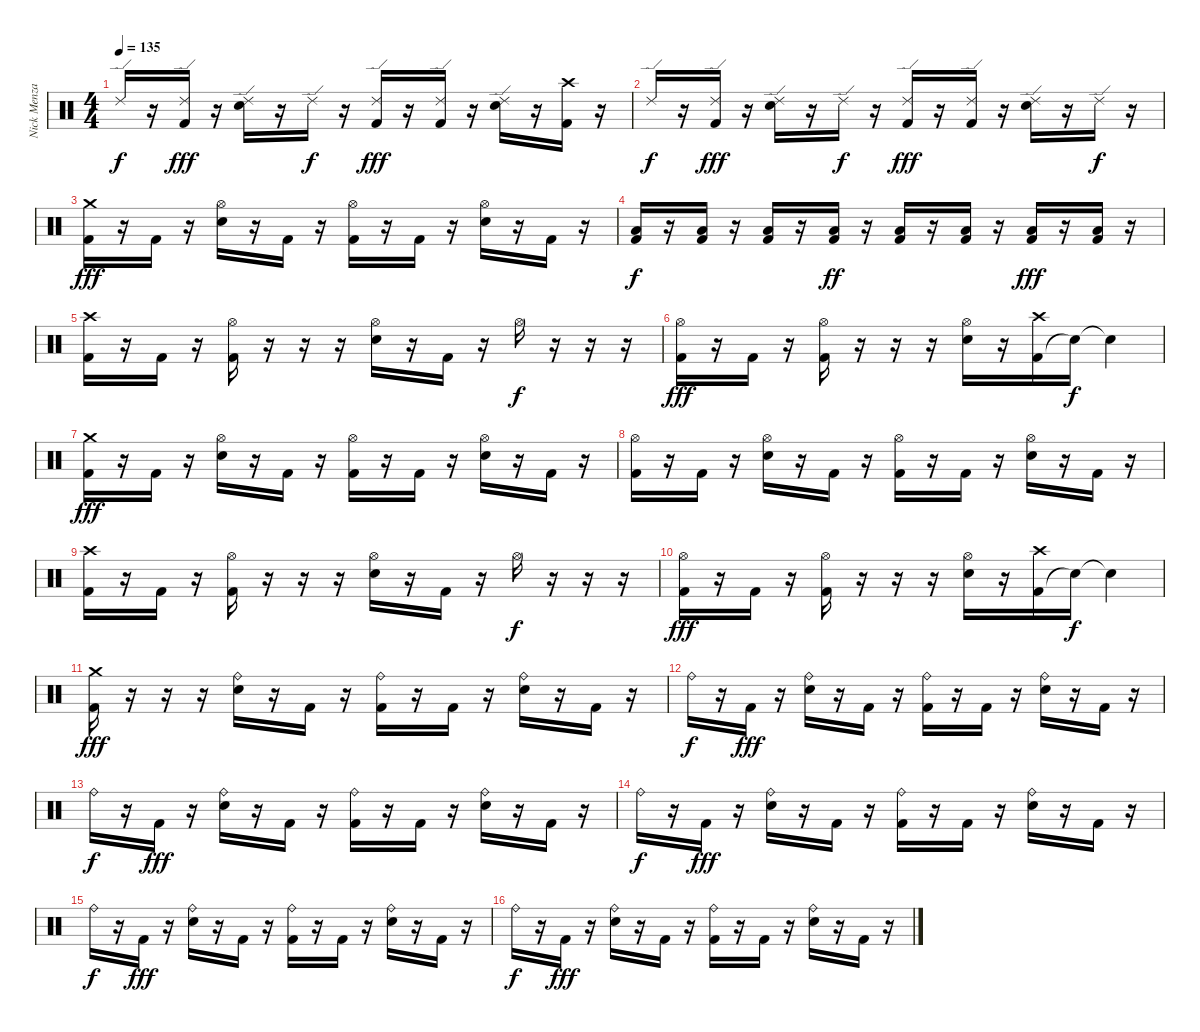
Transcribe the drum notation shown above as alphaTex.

\track ("Nick Menza" "Nick Menza") {instrument percussion}
\staff {score}
\articulation defaults
\ts (4 4)
\tempo 135
\clef neutral
\ks c "Ride (edge) 2".16{dy f}
r.16 ("Kick (hit) 2" "Ride (edge) 2").16{dy fff} r.16 ("Electric Snare (hit)" "Ride (edge) 2").16 r.16 "Ride (edge) 2".16{dy f} r.16 ("Kick (hit) 2" "Ride (edge) 2").16{dy fff} r.16 ("Kick (hit) 2" "Ride (edge) 2").16 r.16 ("Electric Snare (hit)" "Ride (edge) 2").16 r.16 ("Kick (hit) 2" "Crash high (hit)").16 r.16 |
"Ride (edge) 2".16{dy f} r.16 ("Kick (hit) 2" "Ride (edge) 2").16{dy fff} r.16 ("Electric Snare (hit)" "Ride (edge) 2").16 r.16 "Ride (edge) 2".16{dy f} r.16 ("Kick (hit) 2" "Ride (edge) 2").16{dy fff} r.16 ("Kick (hit) 2" "Ride (edge) 2").16 r.16 ("Electric Snare (hit)" "Ride (edge) 2").16 r.16 "Ride (edge) 2".16{dy f} r.16 |
("Kick (hit) 2" "Crash medium (hit)").16{dy fff} r.16 "Kick (hit) 2".16 r.16 ("Electric Snare (hit)" "Hi-Hat (open)").16 r.16 "Kick (hit) 2".16 r.16 ("Kick (hit) 2" "Hi-Hat (open)").16 r.16 "Kick (hit) 2".16 r.16 ("Electric Snare (hit)" "Hi-Hat (open)").16 r.16 "Kick (hit) 2".16 r.16 |
("Kick (hit) 2" "Low Floor Tom (hit)").16{dy f} r.16 ("Kick (hit) 2" "Low Floor Tom (hit)").16 r.16 ("Kick (hit) 2" "Low Floor Tom (hit)").16 r.16 ("Kick (hit) 2" "Low Floor Tom (hit)").16{dy ff} r.16 ("Kick (hit) 2" "Low Floor Tom (hit)").16 r.16 ("Kick (hit) 2" "Low Floor Tom (hit)").16 r.16 ("Kick (hit) 2" "Low Floor Tom (hit)").16{dy fff} r.16 ("Kick (hit) 2" "Low Floor Tom (hit)").16 r.16 |
("Kick (hit) 2" "Crash high (hit)").16 r.16 "Kick (hit) 2".16 r.16 ("Kick (hit) 2" "Hi-Hat (open)").16 r.16 r.16 r.16 ("Electric Snare (hit)" "Hi-Hat (open)").16 r.16 "Kick (hit) 2".16 r.16 "Hi-Hat (open)".16{dy f} r.16 r.16 r.16 |
("Kick (hit) 2" "Hi-Hat (open)").16{dy fff} r.16 "Kick (hit) 2".16 r.16 ("Kick (hit) 2" "Hi-Hat (open)").16 r.16 r.16 r.16 ("Electric Snare (hit)" "Hi-Hat (open)").16 r.16 ("Kick (hit) 2" "Crash high (hit)").16 "Snare (hit)"{t}.16{dy f} "Snare (hit)"{t}.4 |
("Kick (hit) 2" "Crash medium (hit)").16{dy fff} r.16 "Kick (hit) 2".16 r.16 ("Electric Snare (hit)" "Hi-Hat (open)").16 r.16 "Kick (hit) 2".16 r.16 ("Kick (hit) 2" "Hi-Hat (open)").16 r.16 "Kick (hit) 2".16 r.16 ("Electric Snare (hit)" "Hi-Hat (open)").16 r.16 "Kick (hit) 2".16 r.16 |
("Kick (hit) 2" "Hi-Hat (open)").16 r.16 "Kick (hit) 2".16 r.16 ("Electric Snare (hit)" "Hi-Hat (open)").16 r.16 "Kick (hit) 2".16 r.16 ("Kick (hit) 2" "Hi-Hat (open)").16 r.16 "Kick (hit) 2".16 r.16 ("Electric Snare (hit)" "Hi-Hat (open)").16 r.16 "Kick (hit) 2".16 r.16 |
("Kick (hit) 2" "Crash high (hit)").16 r.16 "Kick (hit) 2".16 r.16 ("Kick (hit) 2" "Hi-Hat (open)").16 r.16 r.16 r.16 ("Electric Snare (hit)" "Hi-Hat (open)").16 r.16 "Kick (hit) 2".16 r.16 "Hi-Hat (open)".16{dy f} r.16 r.16 r.16 |
("Kick (hit) 2" "Hi-Hat (open)").16{dy fff} r.16 "Kick (hit) 2".16 r.16 ("Kick (hit) 2" "Hi-Hat (open)").16 r.16 r.16 r.16 ("Electric Snare (hit)" "Hi-Hat (open)").16 r.16 ("Kick (hit) 2" "Crash high (hit)").16 "Snare (hit)"{t}.16{dy f} "Snare (hit)"{t}.4 |
("Kick (hit) 2" "Crash medium (hit)").16{dy fff} r.16 r.16 r.16 ("Electric Snare (hit)" "Ride (bell)").16 r.16 "Kick (hit) 2".16 r.16 ("Kick (hit) 2" "Ride (bell)").16 r.16 "Kick (hit) 2".16 r.16 ("Electric Snare (hit)" "Ride (bell)").16 r.16 "Kick (hit) 2".16 r.16 |
"Ride (bell)".16{dy f} r.16 "Kick (hit) 2".16{dy fff} r.16 ("Electric Snare (hit)" "Ride (bell)").16 r.16 "Kick (hit) 2".16 r.16 ("Kick (hit) 2" "Ride (bell)").16 r.16 "Kick (hit) 2".16 r.16 ("Electric Snare (hit)" "Ride (bell)").16 r.16 "Kick (hit) 2".16 r.16 |
"Ride (bell)".16{dy f} r.16 "Kick (hit) 2".16{dy fff} r.16 ("Electric Snare (hit)" "Ride (bell)").16 r.16 "Kick (hit) 2".16 r.16 ("Kick (hit) 2" "Ride (bell)").16 r.16 "Kick (hit) 2".16 r.16 ("Electric Snare (hit)" "Ride (bell)").16 r.16 "Kick (hit) 2".16 r.16 |
"Ride (bell)".16{dy f} r.16 "Kick (hit) 2".16{dy fff} r.16 ("Electric Snare (hit)" "Ride (bell)").16 r.16 "Kick (hit) 2".16 r.16 ("Kick (hit) 2" "Ride (bell)").16 r.16 "Kick (hit) 2".16 r.16 ("Electric Snare (hit)" "Ride (bell)").16 r.16 "Kick (hit) 2".16 r.16 |
"Ride (bell)".16{dy f} r.16 "Kick (hit) 2".16{dy fff} r.16 ("Electric Snare (hit)" "Ride (bell)").16 r.16 "Kick (hit) 2".16 r.16 ("Kick (hit) 2" "Ride (bell)").16 r.16 "Kick (hit) 2".16 r.16 ("Electric Snare (hit)" "Ride (bell)").16 r.16 "Kick (hit) 2".16 r.16 |
"Ride (bell)".16{dy f} r.16 "Kick (hit) 2".16{dy fff} r.16 ("Electric Snare (hit)" "Ride (bell)").16 r.16 "Kick (hit) 2".16 r.16 ("Kick (hit) 2" "Ride (bell)").16 r.16 "Kick (hit) 2".16 r.16 ("Electric Snare (hit)" "Ride (bell)").16 r.16 "Kick (hit) 2".16 r.16
